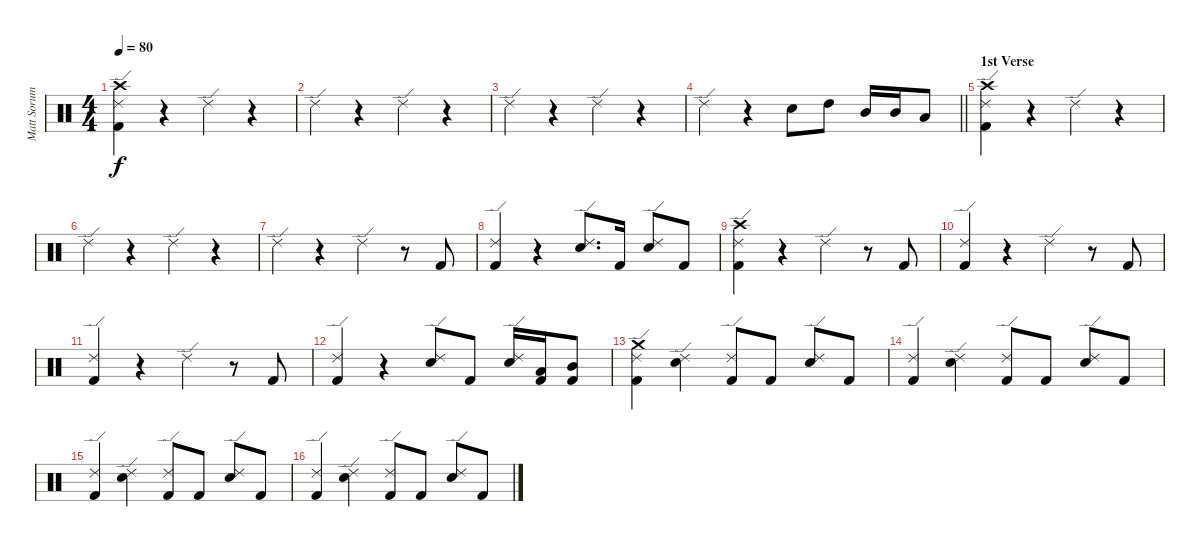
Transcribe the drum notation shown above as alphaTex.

\track ("Matt Sorum" "Matt Sorum") {instrument percussion}
\staff {score}
\articulation defaults
\ts (4 4)
\tempo 80
\clef neutral
\ks c
("Ride (edge) 2" "Kick (hit) 2" "Crash high (hit)").4{dy f} r.4 "Ride (edge) 2".4 r.4 |
"Ride (edge) 2".4 r.4 "Ride (edge) 2".4 r.4 |
"Ride (edge) 2".4 r.4 "Ride (edge) 2".4 r.4 |
\barLineRight lightlight "Ride (edge) 2".4
r.4 "Electric Snare (hit)".8 "High Tom (hit)".8 "Mid Tom (hit)".16 "Mid Tom (hit)".16 "Low Tom (hit)".8 |
\section ("" "1st Verse")
("Ride (edge) 2" "Kick (hit) 2" "Crash high (hit)").4 r.4 "Ride (edge) 2".4 r.4 |
"Ride (edge) 2".4 r.4 "Ride (edge) 2".4 r.4 |
"Ride (edge) 2".4 r.4 "Ride (edge) 2".4 r.8 "Kick (hit) 2".8 |
("Ride (edge) 2" "Kick (hit) 2").4 r.4 ("Electric Snare (hit)" "Ride (edge) 2").8{d} "Kick (hit) 2".16 ("Electric Snare (hit)" "Ride (edge) 2").8 "Kick (hit) 2".8 |
("Ride (edge) 2" "Kick (hit) 2" "Crash high (hit)").4 r.4 "Ride (edge) 2".4 r.8 "Kick (hit) 2".8 |
("Ride (edge) 2" "Kick (hit) 2").4 r.4 "Ride (edge) 2".4 r.8 "Kick (hit) 2".8 |
("Ride (edge) 2" "Kick (hit) 2").4 r.4 "Ride (edge) 2".4 r.8 "Kick (hit) 2".8 |
("Ride (edge) 2" "Kick (hit) 2").4 r.4 ("Electric Snare (hit)" "Ride (edge) 2").8 "Kick (hit) 2".8 ("Electric Snare (hit)" "Ride (edge) 2").16 ("Low Tom (hit)" "Kick (hit) 2").16 ("Mid Tom (hit)" "Kick (hit) 2").8 |
("Ride (edge) 2" "Kick (hit) 2" "Crash medium (hit)").4 ("Electric Snare (hit)" "Ride (edge) 2").4 ("Ride (edge) 2" "Kick (hit) 2").8 "Kick (hit) 2".8 ("Electric Snare (hit)" "Ride (edge) 2").8 "Kick (hit) 2".8 |
("Ride (edge) 2" "Kick (hit) 2").4 ("Electric Snare (hit)" "Ride (edge) 2").4 ("Ride (edge) 2" "Kick (hit) 2").8 "Kick (hit) 2".8 ("Electric Snare (hit)" "Ride (edge) 2").8 "Kick (hit) 2".8 |
("Ride (edge) 2" "Kick (hit) 2").4 ("Electric Snare (hit)" "Ride (edge) 2").4 ("Ride (edge) 2" "Kick (hit) 2").8 "Kick (hit) 2".8 ("Electric Snare (hit)" "Ride (edge) 2").8 "Kick (hit) 2".8 |
("Ride (edge) 2" "Kick (hit) 2").4 ("Electric Snare (hit)" "Ride (edge) 2").4 ("Ride (edge) 2" "Kick (hit) 2").8 "Kick (hit) 2".8 ("Electric Snare (hit)" "Ride (edge) 2").8 "Kick (hit) 2".8
